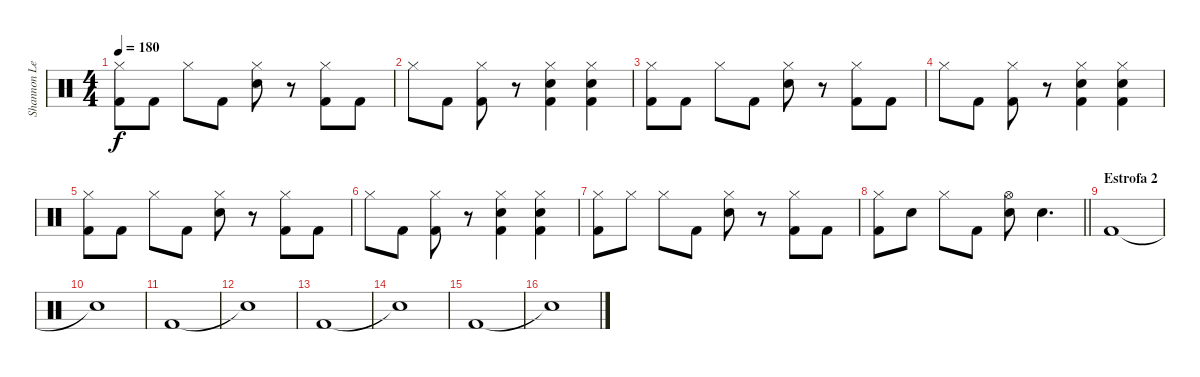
\track ("Shannon Leto" "Shannon Le") {instrument percussion}
\staff {score}
\articulation defaults
\ts (4 4)
\tempo 180
\clef neutral
\ks c
("Hi-Hat (closed)" "Kick (hit) 2").8{dy f} "Kick (hit) 2".8 "Hi-Hat (closed)".8 "Kick (hit) 2".8 ("Hi-Hat (closed)" "Snare (hit) 2").8 r.8 ("Hi-Hat (closed)" "Kick (hit) 2").8 "Kick (hit) 2".8 |
"Hi-Hat (closed)".8 "Kick (hit) 2".8 ("Hi-Hat (closed)" "Kick (hit) 2").8 r.8 ("Hi-Hat (closed)" "Snare (hit) 2" "Kick (hit) 2").4 ("Hi-Hat (closed)" "Snare (hit) 2" "Kick (hit) 2").4 |
("Hi-Hat (closed)" "Kick (hit) 2").8 "Kick (hit) 2".8 "Hi-Hat (closed)".8 "Kick (hit) 2".8 ("Hi-Hat (closed)" "Snare (hit) 2").8 r.8 ("Hi-Hat (closed)" "Kick (hit) 2").8 "Kick (hit) 2".8 |
"Hi-Hat (closed)".8 "Kick (hit) 2".8 ("Hi-Hat (closed)" "Kick (hit) 2").8 r.8 ("Hi-Hat (closed)" "Snare (hit) 2" "Kick (hit) 2").4 ("Hi-Hat (closed)" "Snare (hit) 2" "Kick (hit) 2").4 |
("Hi-Hat (closed)" "Kick (hit) 2").8 "Kick (hit) 2".8 "Hi-Hat (closed)".8 "Kick (hit) 2".8 ("Hi-Hat (closed)" "Snare (hit) 2").8 r.8 ("Hi-Hat (closed)" "Kick (hit) 2").8 "Kick (hit) 2".8 |
"Hi-Hat (closed)".8 "Kick (hit) 2".8 ("Hi-Hat (closed)" "Kick (hit) 2").8 r.8 ("Hi-Hat (closed)" "Snare (hit) 2" "Kick (hit) 2").4 ("Hi-Hat (closed)" "Snare (hit) 2" "Kick (hit) 2").4 |
("Hi-Hat (closed)" "Kick (hit) 2").8 "Hi-Hat (closed)".8 "Hi-Hat (closed)".8 "Kick (hit) 2".8 ("Hi-Hat (closed)" "Snare (hit) 2").8 r.8 ("Hi-Hat (closed)" "Kick (hit) 2").8 "Kick (hit) 2".8 |
\barLineRight lightlight
("Hi-Hat (closed)" "Kick (hit) 2").8 "Snare (hit) 2".8 "Hi-Hat (closed)".8 "Kick (hit) 2".8 ("Hi-Hat (open)" "Snare (hit) 2").8 "Snare (hit) 2".4{d} |
\section ("" "Estrofa 2")
"Kick (hit) 2".1 |
"Snare (hit)"{t}.1 |
"Kick (hit) 2".1 |
"Snare (hit)"{t}.1 |
"Kick (hit) 2".1 |
"Snare (hit)"{t}.1 |
"Kick (hit) 2".1 |
"Snare (hit)"{t}.1
